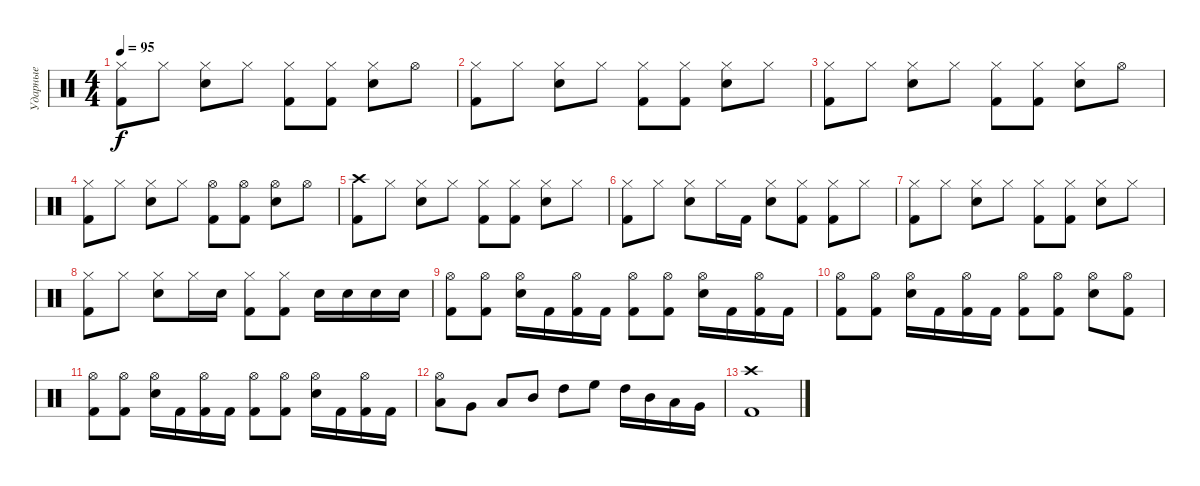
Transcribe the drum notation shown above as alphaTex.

\track ("Ударные" "Ударные") {instrument percussion}
\staff {score}
\articulation defaults
\ts (4 4)
\tempo 95
\clef neutral
\ks c
("Hi-Hat (closed)" "Kick (hit) 2").8{dy f} "Hi-Hat (closed)".8 ("Hi-Hat (closed)" "Electric Snare (hit)").8 "Hi-Hat (closed)".8 ("Hi-Hat (closed)" "Kick (hit) 2").8 ("Hi-Hat (closed)" "Kick (hit) 2").8 ("Hi-Hat (closed)" "Electric Snare (hit)").8 "Hi-Hat (open)".8 |
("Hi-Hat (closed)" "Kick (hit) 2").8 "Hi-Hat (closed)".8 ("Hi-Hat (closed)" "Electric Snare (hit)").8 "Hi-Hat (closed)".8 ("Hi-Hat (closed)" "Kick (hit) 2").8 ("Hi-Hat (closed)" "Kick (hit) 2").8 ("Hi-Hat (closed)" "Electric Snare (hit)").8 "Hi-Hat (closed)".8 |
("Hi-Hat (closed)" "Kick (hit) 2").8 "Hi-Hat (closed)".8 ("Hi-Hat (closed)" "Electric Snare (hit)").8 "Hi-Hat (closed)".8 ("Hi-Hat (closed)" "Kick (hit) 2").8 ("Hi-Hat (closed)" "Kick (hit) 2").8 ("Hi-Hat (closed)" "Electric Snare (hit)").8 "Hi-Hat (open)".8 |
("Hi-Hat (closed)" "Kick (hit) 2").8 "Hi-Hat (closed)".8 ("Hi-Hat (closed)" "Electric Snare (hit)").8 "Hi-Hat (closed)".8 ("Hi-Hat (open)" "Kick (hit) 2").8 ("Hi-Hat (open)" "Kick (hit) 2").8 ("Hi-Hat (open)" "Electric Snare (hit)").8 "Hi-Hat (open)".8 |
("Crash high (hit)" "Kick (hit) 2").8 "Hi-Hat (closed)".8 ("Hi-Hat (closed)" "Electric Snare (hit)").8 "Hi-Hat (closed)".8 ("Hi-Hat (closed)" "Kick (hit) 2").8 ("Hi-Hat (closed)" "Kick (hit) 2").8 ("Hi-Hat (closed)" "Electric Snare (hit)").8 "Hi-Hat (closed)".8 |
("Hi-Hat (closed)" "Kick (hit) 2").8 "Hi-Hat (closed)".8 ("Hi-Hat (closed)" "Electric Snare (hit)").8 "Hi-Hat (closed)".16 "Kick (hit) 2".16 ("Hi-Hat (closed)" "Electric Snare (hit)").8 ("Hi-Hat (closed)" "Kick (hit) 2").8 ("Hi-Hat (closed)" "Kick (hit) 2").8 "Hi-Hat (closed)".8 |
("Hi-Hat (closed)" "Kick (hit) 2").8 "Hi-Hat (closed)".8 ("Hi-Hat (closed)" "Electric Snare (hit)").8 "Hi-Hat (closed)".8 ("Hi-Hat (closed)" "Kick (hit) 2").8 ("Hi-Hat (closed)" "Kick (hit) 2").8 ("Hi-Hat (closed)" "Electric Snare (hit)").8 "Hi-Hat (closed)".8 |
("Hi-Hat (closed)" "Kick (hit) 2").8 "Hi-Hat (closed)".8 ("Hi-Hat (closed)" "Electric Snare (hit)").8 "Hi-Hat (closed)".16 "Electric Snare (hit)".16 ("Hi-Hat (closed)" "Kick (hit) 2").8 ("Hi-Hat (closed)" "Kick (hit) 2").8 "Electric Snare (hit)".16 "Electric Snare (hit)".16 "Electric Snare (hit)".16 "Electric Snare (hit)".16 |
("Hi-Hat (open)" "Kick (hit) 2").8 ("Hi-Hat (open)" "Kick (hit) 2").8 ("Hi-Hat (open)" "Electric Snare (hit)").16 "Kick (hit) 2".16 ("Hi-Hat (open)" "Kick (hit) 2").16 "Kick (hit) 2".16 ("Hi-Hat (open)" "Kick (hit) 2").8 ("Hi-Hat (open)" "Kick (hit) 2").8 ("Hi-Hat (open)" "Electric Snare (hit)").16 "Kick (hit) 2".16 ("Hi-Hat (open)" "Kick (hit) 2").16 "Kick (hit) 2".16 |
("Hi-Hat (open)" "Kick (hit) 2").8 ("Hi-Hat (open)" "Kick (hit) 2").8 ("Hi-Hat (open)" "Electric Snare (hit)").16 "Kick (hit) 2".16 ("Hi-Hat (open)" "Kick (hit) 2").16 "Kick (hit) 2".16 ("Hi-Hat (open)" "Kick (hit) 2").8 ("Hi-Hat (open)" "Kick (hit) 2").8 ("Hi-Hat (open)" "Electric Snare (hit)").8 ("Hi-Hat (open)" "Kick (hit) 2").8 |
("Hi-Hat (open)" "Kick (hit) 2").8 ("Hi-Hat (open)" "Kick (hit) 2").8 ("Hi-Hat (open)" "Electric Snare (hit)").16 "Kick (hit) 2".16 ("Hi-Hat (open)" "Kick (hit) 2").16 "Kick (hit) 2".16 ("Hi-Hat (open)" "Kick (hit) 2").8 ("Hi-Hat (open)" "Kick (hit) 2").8 ("Hi-Hat (open)" "Electric Snare (hit)").16 "Kick (hit) 2".16 ("Hi-Hat (open)" "Kick (hit) 2").16 "Kick (hit) 2".16 |
("Hi-Hat (open)" "Low Floor Tom (hit)").8 "Very Low Tom (hit)".8 "Low Tom (hit)".8 "Mid Tom (hit)".8 "High Tom (hit)".8 "High Floor Tom (hit)".8 "High Tom (hit)".16 "Mid Tom (hit)".16 "Low Tom (hit)".16 "Very Low Tom (hit)".16 |
("Crash high (hit)" "Kick (hit) 2").1
